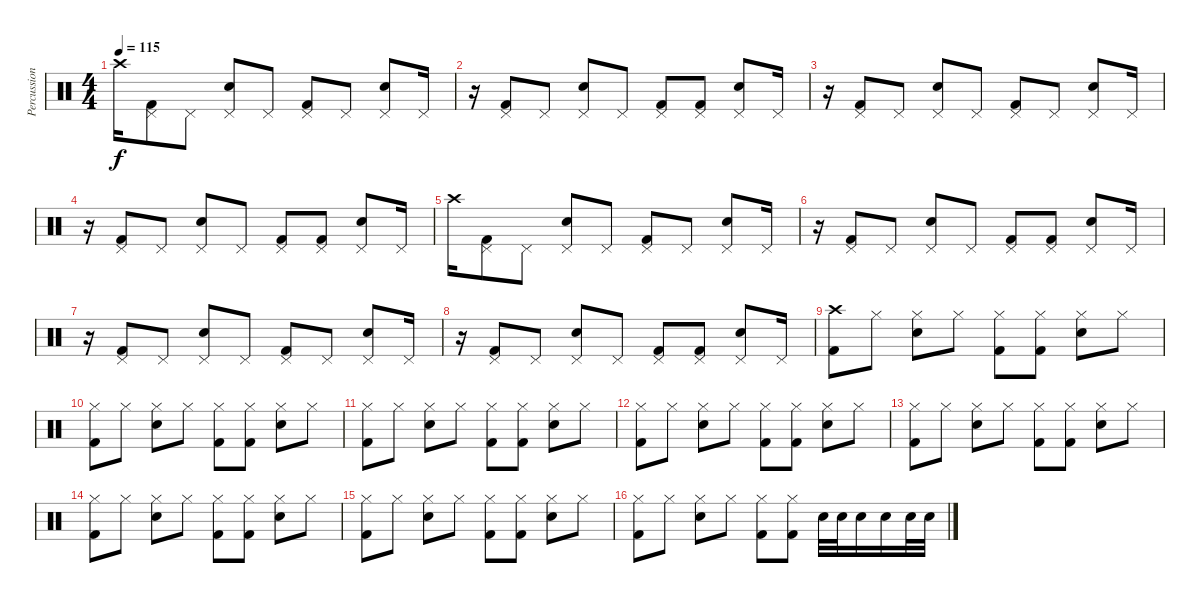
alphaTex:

\track ("Percussion" "Percussion") {instrument percussion}
\staff {score}
\articulation defaults
\ts (4 4)
\tempo 115
\clef neutral
\ks c "Crash high (hit)".16{dy f}
("Pedal Hi-Hat (hit)" "Kick (hit) 2").8 "Pedal Hi-Hat (hit)".8 ("Pedal Hi-Hat (hit)" "Snare (hit) 2").8 "Pedal Hi-Hat (hit)".8 ("Pedal Hi-Hat (hit)" "Kick (hit) 2").8 "Pedal Hi-Hat (hit)".8 ("Pedal Hi-Hat (hit)" "Snare (hit) 2").8 "Pedal Hi-Hat (hit)".16 |
r.16 ("Pedal Hi-Hat (hit)" "Kick (hit) 2").8 "Pedal Hi-Hat (hit)".8 ("Pedal Hi-Hat (hit)" "Snare (hit) 2").8 "Pedal Hi-Hat (hit)".8 ("Pedal Hi-Hat (hit)" "Kick (hit) 2").8 ("Pedal Hi-Hat (hit)" "Kick (hit) 2").8 ("Pedal Hi-Hat (hit)" "Snare (hit) 2").8 "Pedal Hi-Hat (hit)".16 |
r.16 ("Pedal Hi-Hat (hit)" "Kick (hit) 2").8 "Pedal Hi-Hat (hit)".8 ("Pedal Hi-Hat (hit)" "Snare (hit) 2").8 "Pedal Hi-Hat (hit)".8 ("Pedal Hi-Hat (hit)" "Kick (hit) 2").8 "Pedal Hi-Hat (hit)".8 ("Pedal Hi-Hat (hit)" "Snare (hit) 2").8 "Pedal Hi-Hat (hit)".16 |
r.16 ("Pedal Hi-Hat (hit)" "Kick (hit) 2").8 "Pedal Hi-Hat (hit)".8 ("Pedal Hi-Hat (hit)" "Snare (hit) 2").8 "Pedal Hi-Hat (hit)".8 ("Pedal Hi-Hat (hit)" "Kick (hit) 2").8 ("Pedal Hi-Hat (hit)" "Kick (hit) 2").8 ("Pedal Hi-Hat (hit)" "Snare (hit) 2").8 "Pedal Hi-Hat (hit)".16 |
"Crash high (hit)".16 ("Pedal Hi-Hat (hit)" "Kick (hit) 2").8 "Pedal Hi-Hat (hit)".8 ("Pedal Hi-Hat (hit)" "Snare (hit) 2").8 "Pedal Hi-Hat (hit)".8 ("Pedal Hi-Hat (hit)" "Kick (hit) 2").8 "Pedal Hi-Hat (hit)".8 ("Pedal Hi-Hat (hit)" "Snare (hit) 2").8 "Pedal Hi-Hat (hit)".16 |
r.16 ("Pedal Hi-Hat (hit)" "Kick (hit) 2").8 "Pedal Hi-Hat (hit)".8 ("Pedal Hi-Hat (hit)" "Snare (hit) 2").8 "Pedal Hi-Hat (hit)".8 ("Pedal Hi-Hat (hit)" "Kick (hit) 2").8 ("Pedal Hi-Hat (hit)" "Kick (hit) 2").8 ("Pedal Hi-Hat (hit)" "Snare (hit) 2").8 "Pedal Hi-Hat (hit)".16 |
r.16 ("Pedal Hi-Hat (hit)" "Kick (hit) 2").8 "Pedal Hi-Hat (hit)".8 ("Pedal Hi-Hat (hit)" "Snare (hit) 2").8 "Pedal Hi-Hat (hit)".8 ("Pedal Hi-Hat (hit)" "Kick (hit) 2").8 "Pedal Hi-Hat (hit)".8 ("Pedal Hi-Hat (hit)" "Snare (hit) 2").8 "Pedal Hi-Hat (hit)".16 |
r.16 ("Pedal Hi-Hat (hit)" "Kick (hit) 2").8 "Pedal Hi-Hat (hit)".8 ("Pedal Hi-Hat (hit)" "Snare (hit) 2").8 "Pedal Hi-Hat (hit)".8 ("Pedal Hi-Hat (hit)" "Kick (hit) 2").8 ("Pedal Hi-Hat (hit)" "Kick (hit) 2").8 ("Pedal Hi-Hat (hit)" "Snare (hit) 2").8 "Pedal Hi-Hat (hit)".16 |
("Crash high (hit)" "Kick (hit) 2").8 "Hi-Hat (closed)".8 ("Hi-Hat (closed)" "Snare (hit) 2").8 "Hi-Hat (closed)".8 ("Hi-Hat (closed)" "Kick (hit) 2").8 ("Hi-Hat (closed)" "Kick (hit) 2").8 ("Hi-Hat (closed)" "Snare (hit) 2").8 "Hi-Hat (closed)".8 |
("Hi-Hat (closed)" "Kick (hit) 2").8 "Hi-Hat (closed)".8 ("Hi-Hat (closed)" "Snare (hit) 2").8 "Hi-Hat (closed)".8 ("Hi-Hat (closed)" "Kick (hit) 2").8 ("Hi-Hat (closed)" "Kick (hit) 2").8 ("Hi-Hat (closed)" "Snare (hit) 2").8 "Hi-Hat (closed)".8 |
("Hi-Hat (closed)" "Kick (hit) 2").8 "Hi-Hat (closed)".8 ("Hi-Hat (closed)" "Snare (hit) 2").8 "Hi-Hat (closed)".8 ("Hi-Hat (closed)" "Kick (hit) 2").8 ("Hi-Hat (closed)" "Kick (hit) 2").8 ("Hi-Hat (closed)" "Snare (hit) 2").8 "Hi-Hat (closed)".8 |
("Hi-Hat (closed)" "Kick (hit) 2").8 "Hi-Hat (closed)".8 ("Hi-Hat (closed)" "Snare (hit) 2").8 "Hi-Hat (closed)".8 ("Hi-Hat (closed)" "Kick (hit) 2").8 ("Hi-Hat (closed)" "Kick (hit) 2").8 ("Hi-Hat (closed)" "Snare (hit) 2").8 "Hi-Hat (closed)".8 |
("Hi-Hat (closed)" "Kick (hit) 2").8 "Hi-Hat (closed)".8 ("Hi-Hat (closed)" "Snare (hit) 2").8 "Hi-Hat (closed)".8 ("Hi-Hat (closed)" "Kick (hit) 2").8 ("Hi-Hat (closed)" "Kick (hit) 2").8 ("Hi-Hat (closed)" "Snare (hit) 2").8 "Hi-Hat (closed)".8 |
("Hi-Hat (closed)" "Kick (hit) 2").8 "Hi-Hat (closed)".8 ("Hi-Hat (closed)" "Snare (hit) 2").8 "Hi-Hat (closed)".8 ("Hi-Hat (closed)" "Kick (hit) 2").8 ("Hi-Hat (closed)" "Kick (hit) 2").8 ("Hi-Hat (closed)" "Snare (hit) 2").8 "Hi-Hat (closed)".8 |
("Hi-Hat (closed)" "Kick (hit) 2").8 "Hi-Hat (closed)".8 ("Hi-Hat (closed)" "Snare (hit) 2").8 "Hi-Hat (closed)".8 ("Hi-Hat (closed)" "Kick (hit) 2").8 ("Hi-Hat (closed)" "Kick (hit) 2").8 ("Hi-Hat (closed)" "Snare (hit) 2").8 "Hi-Hat (closed)".8 |
("Hi-Hat (closed)" "Kick (hit) 2").8 "Hi-Hat (closed)".8 ("Hi-Hat (closed)" "Snare (hit) 2").8 "Hi-Hat (closed)".8 ("Hi-Hat (closed)" "Kick (hit) 2").8 ("Hi-Hat (closed)" "Kick (hit) 2").8 "Snare (hit) 2".32 "Snare (hit) 2".32 "Snare (hit) 2".16 "Snare (hit) 2".16 "Snare (hit) 2".32 "Snare (hit) 2".32
